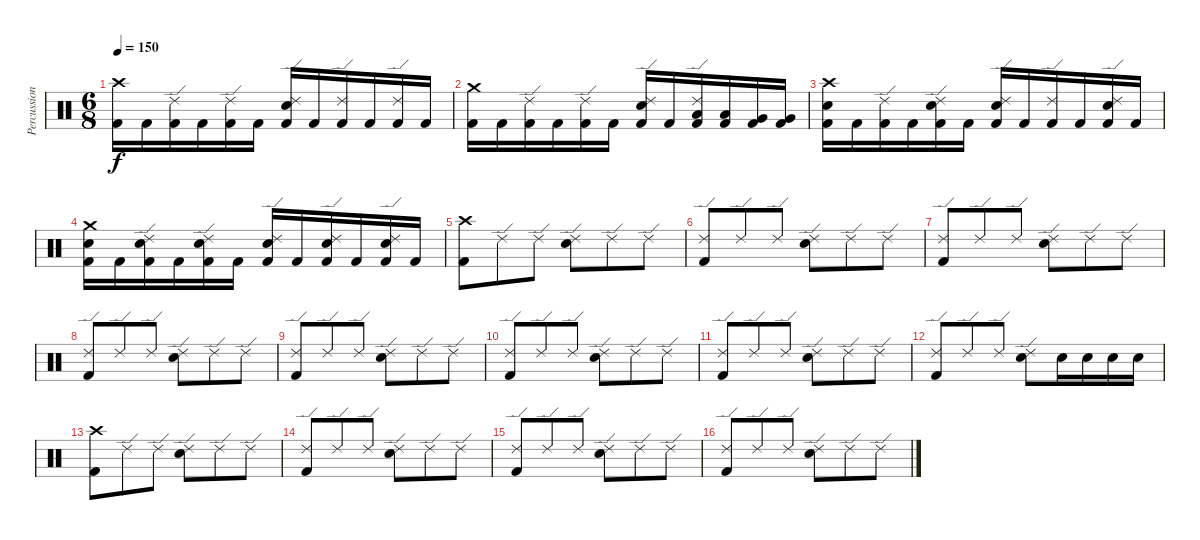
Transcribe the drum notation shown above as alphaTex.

\track ("Percussion" "Percussion") {instrument percussion}
\staff {score}
\articulation defaults
\ts (6 8)
\tempo 150
\clef neutral
\ks c
("Crash high (hit)" "Kick (hit) 2").16{dy f} "Kick (hit) 2".16 ("Ride (edge) 2" "Kick (hit) 2").16 "Kick (hit) 2".16 ("Ride (edge) 2" "Kick (hit) 2").16 "Kick (hit) 2".16 ("Ride (edge) 2" "Electric Snare (hit)" "Kick (hit) 2").16 "Kick (hit) 2".16 ("Ride (edge) 2" "Kick (hit) 2").16 "Kick (hit) 2".16 ("Ride (edge) 2" "Kick (hit) 2").16 "Kick (hit) 2".16 |
("Crash medium (hit)" "Kick (hit) 2").16 "Kick (hit) 2".16 ("Ride (edge) 2" "Kick (hit) 2").16 "Kick (hit) 2".16 ("Ride (edge) 2" "Kick (hit) 2").16 "Kick (hit) 2".16 ("Ride (edge) 2" "Electric Snare (hit)" "Kick (hit) 2").16 "Kick (hit) 2".16 ("Ride (edge) 2" "Low Tom (hit)" "Kick (hit) 2").16 ("Low Tom (hit)" "Kick (hit) 2").16 ("Very Low Tom (hit)" "Kick (hit) 2").16 ("Very Low Tom (hit)" "Kick (hit) 2").16 |
("Crash high (hit)" "Electric Snare (hit)" "Kick (hit) 2").16 "Kick (hit) 2".16 ("Ride (edge) 2" "Kick (hit) 2").16 "Kick (hit) 2".16 ("Ride (edge) 2" "Electric Snare (hit)" "Kick (hit) 2").16 "Kick (hit) 2".16 ("Ride (edge) 2" "Electric Snare (hit)" "Kick (hit) 2").16 "Kick (hit) 2".16 ("Ride (edge) 2" "Kick (hit) 2").16 "Kick (hit) 2".16 ("Ride (edge) 2" "Electric Snare (hit)" "Kick (hit) 2").16 "Kick (hit) 2".16 |
("Crash medium (hit)" "Electric Snare (hit)" "Kick (hit) 2").16 "Kick (hit) 2".16 ("Ride (edge) 2" "Electric Snare (hit)" "Kick (hit) 2").16 "Kick (hit) 2".16 ("Ride (edge) 2" "Electric Snare (hit)" "Kick (hit) 2").16 "Kick (hit) 2".16 ("Ride (edge) 2" "Electric Snare (hit)" "Kick (hit) 2").16 "Kick (hit) 2".16 ("Ride (edge) 2" "Electric Snare (hit)" "Kick (hit) 2").16 "Kick (hit) 2".16 ("Ride (edge) 2" "Electric Snare (hit)" "Kick (hit) 2").16 "Kick (hit) 2".16 |
("Crash high (hit)" "Kick (hit) 2").8 "Ride (edge) 2".8 "Ride (edge) 2".8 ("Ride (edge) 2" "Electric Snare (hit)").8 "Ride (edge) 2".8 "Ride (edge) 2".8 |
("Ride (edge) 2" "Kick (hit) 2").8 "Ride (edge) 2".8 "Ride (edge) 2".8 ("Ride (edge) 2" "Electric Snare (hit)").8 "Ride (edge) 2".8 "Ride (edge) 2".8 |
("Ride (edge) 2" "Kick (hit) 2").8 "Ride (edge) 2".8 "Ride (edge) 2".8 ("Ride (edge) 2" "Electric Snare (hit)").8 "Ride (edge) 2".8 "Ride (edge) 2".8 |
("Ride (edge) 2" "Kick (hit) 2").8 "Ride (edge) 2".8 "Ride (edge) 2".8 ("Ride (edge) 2" "Electric Snare (hit)").8 "Ride (edge) 2".8 "Ride (edge) 2".8 |
("Ride (edge) 2" "Kick (hit) 2").8 "Ride (edge) 2".8 "Ride (edge) 2".8 ("Ride (edge) 2" "Electric Snare (hit)").8 "Ride (edge) 2".8 "Ride (edge) 2".8 |
("Ride (edge) 2" "Kick (hit) 2").8 "Ride (edge) 2".8 "Ride (edge) 2".8 ("Ride (edge) 2" "Electric Snare (hit)").8 "Ride (edge) 2".8 "Ride (edge) 2".8 |
("Ride (edge) 2" "Kick (hit) 2").8 "Ride (edge) 2".8 "Ride (edge) 2".8 ("Ride (edge) 2" "Electric Snare (hit)").8 "Ride (edge) 2".8 "Ride (edge) 2".8 |
("Ride (edge) 2" "Kick (hit) 2").8 "Ride (edge) 2".8 "Ride (edge) 2".8 ("Ride (edge) 2" "Electric Snare (hit)").8 "Electric Snare (hit)".16 "Electric Snare (hit)".16 "Electric Snare (hit)".16 "Electric Snare (hit)".16 |
("Crash high (hit)" "Kick (hit) 2").8 "Ride (edge) 2".8 "Ride (edge) 2".8 ("Ride (edge) 2" "Electric Snare (hit)").8 "Ride (edge) 2".8 "Ride (edge) 2".8 |
("Ride (edge) 2" "Kick (hit) 2").8 "Ride (edge) 2".8 "Ride (edge) 2".8 ("Ride (edge) 2" "Electric Snare (hit)").8 "Ride (edge) 2".8 "Ride (edge) 2".8 |
("Ride (edge) 2" "Kick (hit) 2").8 "Ride (edge) 2".8 "Ride (edge) 2".8 ("Ride (edge) 2" "Electric Snare (hit)").8 "Ride (edge) 2".8 "Ride (edge) 2".8 |
("Ride (edge) 2" "Kick (hit) 2").8 "Ride (edge) 2".8 "Ride (edge) 2".8 ("Ride (edge) 2" "Electric Snare (hit)").8 "Ride (edge) 2".8 "Ride (edge) 2".8
